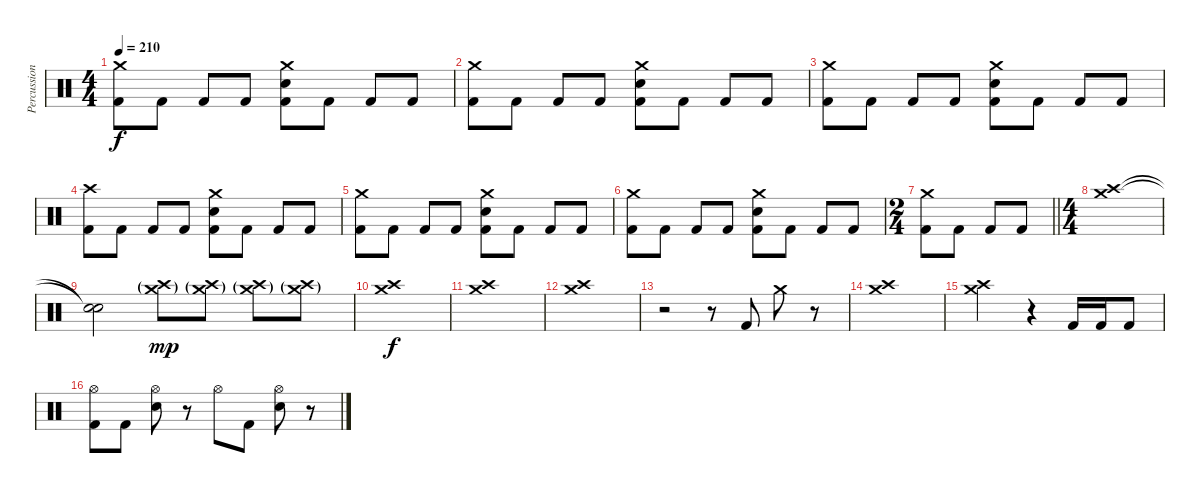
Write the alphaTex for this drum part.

\track ("Percussion" "Percussion") {instrument percussion}
\staff {score}
\articulation defaults
\ts (4 4)
\tempo 210
\clef neutral
\ks c
("Crash medium (hit)" "Kick (hit) 2").8{dy f} "Kick (hit) 2".8 "Kick (hit) 2".8 "Kick (hit) 2".8 ("Crash medium (hit)" "Electric Snare (hit)" "Kick (hit) 2").8 "Kick (hit) 2".8 "Kick (hit) 2".8 "Kick (hit) 2".8 |
("Crash medium (hit)" "Kick (hit) 2").8 "Kick (hit) 2".8 "Kick (hit) 2".8 "Kick (hit) 2".8 ("Crash medium (hit)" "Electric Snare (hit)" "Kick (hit) 2").8 "Kick (hit) 2".8 "Kick (hit) 2".8 "Kick (hit) 2".8 |
("Crash medium (hit)" "Kick (hit) 2").8 "Kick (hit) 2".8 "Kick (hit) 2".8 "Kick (hit) 2".8 ("Crash medium (hit)" "Electric Snare (hit)" "Kick (hit) 2").8 "Kick (hit) 2".8 "Kick (hit) 2".8 "Kick (hit) 2".8 |
("Crash high (hit)" "Kick (hit) 2").8 "Kick (hit) 2".8 "Kick (hit) 2".8 "Kick (hit) 2".8 ("Crash medium (hit)" "Electric Snare (hit)" "Kick (hit) 2").8 "Kick (hit) 2".8 "Kick (hit) 2".8 "Kick (hit) 2".8 |
("Crash medium (hit)" "Kick (hit) 2").8 "Kick (hit) 2".8 "Kick (hit) 2".8 "Kick (hit) 2".8 ("Crash medium (hit)" "Electric Snare (hit)" "Kick (hit) 2").8 "Kick (hit) 2".8 "Kick (hit) 2".8 "Kick (hit) 2".8 |
("Crash medium (hit)" "Kick (hit) 2").8 "Kick (hit) 2".8 "Kick (hit) 2".8 "Kick (hit) 2".8 ("Crash medium (hit)" "Electric Snare (hit)" "Kick (hit) 2").8 "Kick (hit) 2".8 "Kick (hit) 2".8 "Kick (hit) 2".8 |
\ts (2 4)
\barLineRight lightlight
("Crash medium (hit)" "Kick (hit) 2").8 "Kick (hit) 2".8 "Kick (hit) 2".8 "Kick (hit) 2".8 |
\ts (4 4)
("Crash high (hit)" "Crash medium (hit)").1 |
("Snare (hit)"{t} "Snare (hit)"{t}).2 ("Crash high (hit)"{g} "Crash medium (hit)"{g}).8{dy mp} ("Crash high (hit)"{g} "Crash medium (hit)"{g}).8 ("Crash high (hit)"{g} "Crash medium (hit)"{g}).8 ("Crash high (hit)"{g} "Crash medium (hit)"{g}).8 |
("Crash high (hit)" "Crash medium (hit)").1{dy f} |
("Crash high (hit)" "Crash medium (hit)").1 |
("Crash high (hit)" "Crash medium (hit)").1 |
r.2 r.8 "Kick (hit) 2".8 "Crash medium (hit)".8 r.8 |
("Crash high (hit)" "Crash medium (hit)").1 |
("Crash high (hit)" "Crash medium (hit)").2 r.4 "Kick (hit) 2".16 "Kick (hit) 2".16 "Kick (hit) 2".8 |
("Hi-Hat (open)" "Kick (hit) 2").8 "Kick (hit) 2".8 ("Hi-Hat (open)" "Electric Snare (hit)").8 r.8 "Hi-Hat (open)".8 "Kick (hit) 2".8 ("Hi-Hat (open)" "Electric Snare (hit)").8 r.8
